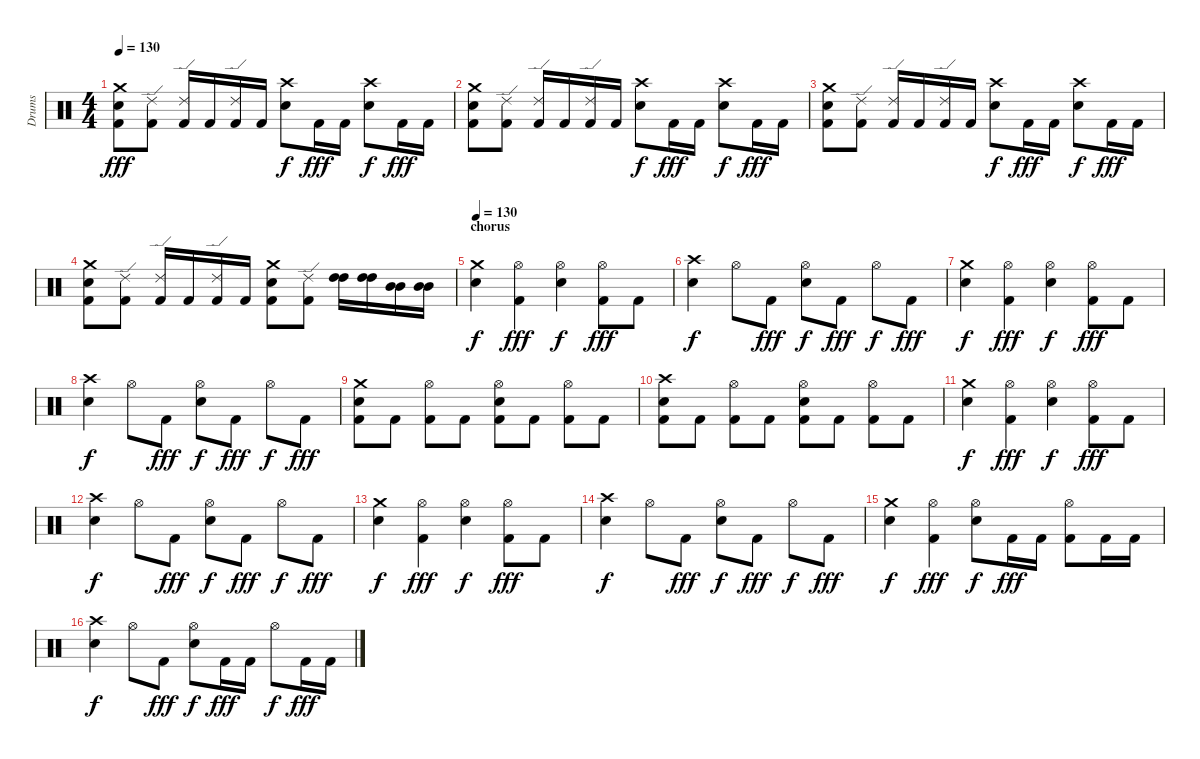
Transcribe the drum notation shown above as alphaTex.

\track ("Drums" "Drums") {instrument percussion}
\staff {score}
\articulation defaults
\ts (4 4)
\tempo 130
\clef neutral
\ks c
("Crash medium (hit)" "Electric Snare (hit)" "Kick (hit) 2").8{dy fff} ("Ride (edge) 2" "Kick (hit) 2").8 ("Ride (edge) 2" "Kick (hit) 2").16 "Kick (hit) 2".16 ("Ride (edge) 2" "Kick (hit) 2").16 "Kick (hit) 2".16 ("Crash high (hit)" "Electric Snare (hit)").8{dy f} "Kick (hit) 2".16{dy fff} "Kick (hit) 2".16 ("Crash high (hit)" "Electric Snare (hit)").8{dy f} "Kick (hit) 2".16{dy fff} "Kick (hit) 2".16 |
("Crash medium (hit)" "Electric Snare (hit)" "Kick (hit) 2").8 ("Ride (edge) 2" "Kick (hit) 2").8 ("Ride (edge) 2" "Kick (hit) 2").16 "Kick (hit) 2".16 ("Ride (edge) 2" "Kick (hit) 2").16 "Kick (hit) 2".16 ("Crash high (hit)" "Electric Snare (hit)").8{dy f} "Kick (hit) 2".16{dy fff} "Kick (hit) 2".16 ("Crash high (hit)" "Electric Snare (hit)").8{dy f} "Kick (hit) 2".16{dy fff} "Kick (hit) 2".16 |
("Crash medium (hit)" "Electric Snare (hit)" "Kick (hit) 2").8 ("Ride (edge) 2" "Kick (hit) 2").8 ("Ride (edge) 2" "Kick (hit) 2").16 "Kick (hit) 2".16 ("Ride (edge) 2" "Kick (hit) 2").16 "Kick (hit) 2".16 ("Crash high (hit)" "Electric Snare (hit)").8{dy f} "Kick (hit) 2".16{dy fff} "Kick (hit) 2".16 ("Crash high (hit)" "Electric Snare (hit)").8{dy f} "Kick (hit) 2".16{dy fff} "Kick (hit) 2".16 |
("Crash medium (hit)" "Electric Snare (hit)" "Kick (hit) 2").8 ("Ride (edge) 2" "Kick (hit) 2").8 ("Ride (edge) 2" "Kick (hit) 2").16 "Kick (hit) 2".16 ("Ride (edge) 2" "Kick (hit) 2").16 "Kick (hit) 2".16 ("Crash medium (hit)" "Electric Snare (hit)" "Kick (hit) 2").8 ("Ride (edge) 2" "Kick (hit) 2").8 ("High Tom (hit)" "High Tom (hit)").16 ("High Tom (hit)" "High Tom (hit)").16 ("Mid Tom (hit)" "Mid Tom (hit)").16 ("Mid Tom (hit)" "Mid Tom (hit)").16 |
\section ("" "chorus")
\tempo 130
("Crash medium (hit)" "Electric Snare (hit)").4{dy f} ("Hi-Hat (open)" "Kick (hit) 2").4{dy fff} ("Hi-Hat (open)" "Electric Snare (hit)").4{dy f} ("Hi-Hat (open)" "Kick (hit) 2").8{dy fff} "Kick (hit) 2".8 |
("Crash high (hit)" "Electric Snare (hit)").4{dy f} "Hi-Hat (open)".8 "Kick (hit) 2".8{dy fff} ("Hi-Hat (open)" "Electric Snare (hit)").8{dy f} "Kick (hit) 2".8{dy fff} "Hi-Hat (open)".8{dy f} "Kick (hit) 2".8{dy fff} |
("Crash medium (hit)" "Electric Snare (hit)").4{dy f} ("Hi-Hat (open)" "Kick (hit) 2").4{dy fff} ("Hi-Hat (open)" "Electric Snare (hit)").4{dy f} ("Hi-Hat (open)" "Kick (hit) 2").8{dy fff} "Kick (hit) 2".8 |
("Crash high (hit)" "Electric Snare (hit)").4{dy f} "Hi-Hat (open)".8 "Kick (hit) 2".8{dy fff} ("Hi-Hat (open)" "Electric Snare (hit)").8{dy f} "Kick (hit) 2".8{dy fff} "Hi-Hat (open)".8{dy f} "Kick (hit) 2".8{dy fff} |
("Crash medium (hit)" "Electric Snare (hit)" "Kick (hit) 2").8 "Kick (hit) 2".8 ("Hi-Hat (open)" "Kick (hit) 2").8 "Kick (hit) 2".8 ("Hi-Hat (open)" "Electric Snare (hit)" "Kick (hit) 2").8 "Kick (hit) 2".8 ("Hi-Hat (open)" "Kick (hit) 2").8 "Kick (hit) 2".8 |
("Crash high (hit)" "Electric Snare (hit)" "Kick (hit) 2").8 "Kick (hit) 2".8 ("Hi-Hat (open)" "Kick (hit) 2").8 "Kick (hit) 2".8 ("Hi-Hat (open)" "Electric Snare (hit)" "Kick (hit) 2").8 "Kick (hit) 2".8 ("Hi-Hat (open)" "Kick (hit) 2").8 "Kick (hit) 2".8 |
("Crash medium (hit)" "Electric Snare (hit)").4{dy f} ("Hi-Hat (open)" "Kick (hit) 2").4{dy fff} ("Hi-Hat (open)" "Electric Snare (hit)").4{dy f} ("Hi-Hat (open)" "Kick (hit) 2").8{dy fff} "Kick (hit) 2".8 |
("Crash high (hit)" "Electric Snare (hit)").4{dy f} "Hi-Hat (open)".8 "Kick (hit) 2".8{dy fff} ("Hi-Hat (open)" "Electric Snare (hit)").8{dy f} "Kick (hit) 2".8{dy fff} "Hi-Hat (open)".8{dy f} "Kick (hit) 2".8{dy fff} |
("Crash medium (hit)" "Electric Snare (hit)").4{dy f} ("Hi-Hat (open)" "Kick (hit) 2").4{dy fff} ("Hi-Hat (open)" "Electric Snare (hit)").4{dy f} ("Hi-Hat (open)" "Kick (hit) 2").8{dy fff} "Kick (hit) 2".8 |
("Crash high (hit)" "Electric Snare (hit)").4{dy f} "Hi-Hat (open)".8 "Kick (hit) 2".8{dy fff} ("Hi-Hat (open)" "Electric Snare (hit)").8{dy f} "Kick (hit) 2".8{dy fff} "Hi-Hat (open)".8{dy f} "Kick (hit) 2".8{dy fff} |
("Crash medium (hit)" "Electric Snare (hit)").4{dy f} ("Hi-Hat (open)" "Kick (hit) 2").4{dy fff} ("Hi-Hat (open)" "Electric Snare (hit)").8{dy f} "Kick (hit) 2".16{dy fff} "Kick (hit) 2".16 ("Hi-Hat (open)" "Kick (hit) 2").8 "Kick (hit) 2".16 "Kick (hit) 2".16 |
("Crash high (hit)" "Electric Snare (hit)").4{dy f} "Hi-Hat (open)".8 "Kick (hit) 2".8{dy fff} ("Hi-Hat (open)" "Electric Snare (hit)").8{dy f} "Kick (hit) 2".16{dy fff} "Kick (hit) 2".16 "Hi-Hat (open)".8{dy f} "Kick (hit) 2".16{dy fff} "Kick (hit) 2".16
